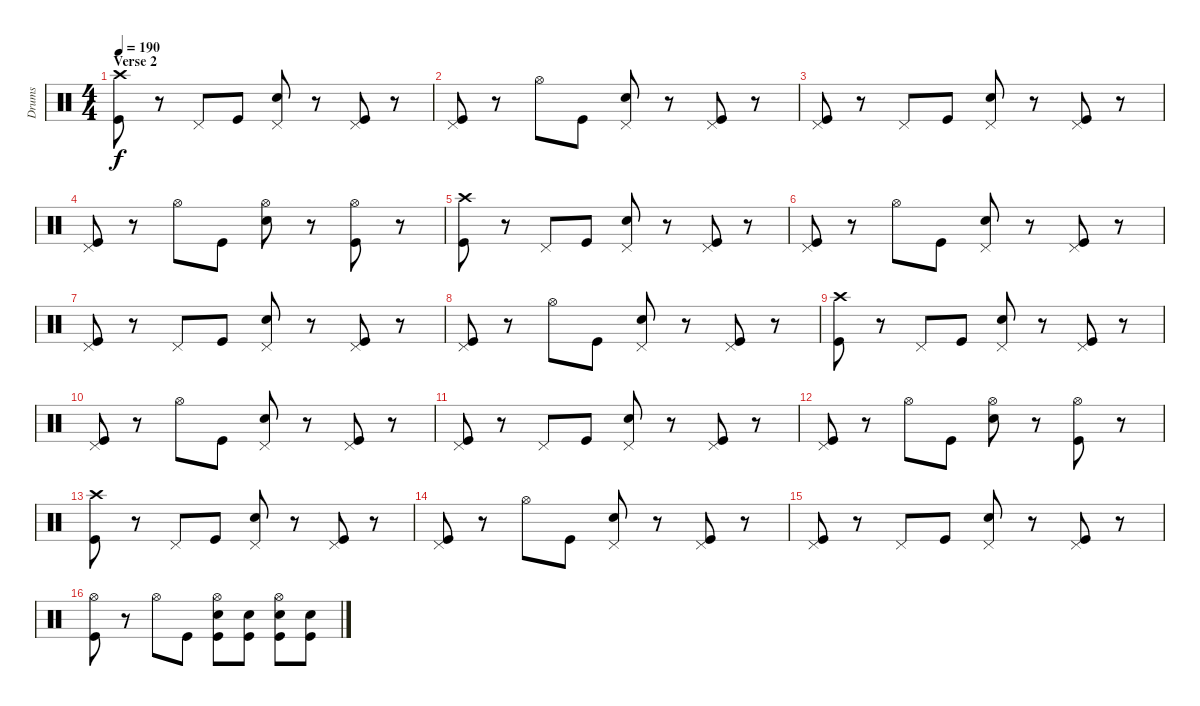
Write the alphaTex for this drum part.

\track ("Drums" "Drums") {instrument percussion}
\staff {score}
\articulation defaults
\ts (4 4)
\section ("" "Verse 2")
\tempo 190
\clef neutral
\ks c
("Crash high (hit)" "Kick (hit)").8{dy f} r.8 "Pedal Hi-Hat (hit)".8 "Kick (hit)".8 ("Pedal Hi-Hat (hit)" "Snare (hit) 2").8 r.8 ("Pedal Hi-Hat (hit)" "Kick (hit)").8 r.8 |
("Pedal Hi-Hat (hit)" "Kick (hit)").8 r.8 "Hi-Hat (open)".8 "Kick (hit)".8 ("Pedal Hi-Hat (hit)" "Snare (hit) 2").8 r.8 ("Pedal Hi-Hat (hit)" "Kick (hit)").8 r.8 |
("Pedal Hi-Hat (hit)" "Kick (hit)").8 r.8 "Pedal Hi-Hat (hit)".8 "Kick (hit)".8 ("Pedal Hi-Hat (hit)" "Snare (hit) 2").8 r.8 ("Pedal Hi-Hat (hit)" "Kick (hit)").8 r.8 |
("Pedal Hi-Hat (hit)" "Kick (hit)").8 r.8 "Hi-Hat (open)".8 "Kick (hit)".8 ("Hi-Hat (open)" "Snare (hit) 2").8 r.8 ("Hi-Hat (open)" "Kick (hit)").8 r.8 |
("Crash high (hit)" "Kick (hit)").8 r.8 "Pedal Hi-Hat (hit)".8 "Kick (hit)".8 ("Pedal Hi-Hat (hit)" "Snare (hit) 2").8 r.8 ("Pedal Hi-Hat (hit)" "Kick (hit)").8 r.8 |
("Pedal Hi-Hat (hit)" "Kick (hit)").8 r.8 "Hi-Hat (open)".8 "Kick (hit)".8 ("Pedal Hi-Hat (hit)" "Snare (hit) 2").8 r.8 ("Pedal Hi-Hat (hit)" "Kick (hit)").8 r.8 |
("Pedal Hi-Hat (hit)" "Kick (hit)").8 r.8 "Pedal Hi-Hat (hit)".8 "Kick (hit)".8 ("Pedal Hi-Hat (hit)" "Snare (hit) 2").8 r.8 ("Pedal Hi-Hat (hit)" "Kick (hit)").8 r.8 |
("Pedal Hi-Hat (hit)" "Kick (hit)").8 r.8 "Hi-Hat (open)".8 "Kick (hit)".8 ("Pedal Hi-Hat (hit)" "Snare (hit) 2").8 r.8 ("Pedal Hi-Hat (hit)" "Kick (hit)").8 r.8 |
("Crash high (hit)" "Kick (hit)").8 r.8 "Pedal Hi-Hat (hit)".8 "Kick (hit)".8 ("Pedal Hi-Hat (hit)" "Snare (hit) 2").8 r.8 ("Pedal Hi-Hat (hit)" "Kick (hit)").8 r.8 |
("Pedal Hi-Hat (hit)" "Kick (hit)").8 r.8 "Hi-Hat (open)".8 "Kick (hit)".8 ("Pedal Hi-Hat (hit)" "Snare (hit) 2").8 r.8 ("Pedal Hi-Hat (hit)" "Kick (hit)").8 r.8 |
("Pedal Hi-Hat (hit)" "Kick (hit)").8 r.8 "Pedal Hi-Hat (hit)".8 "Kick (hit)".8 ("Pedal Hi-Hat (hit)" "Snare (hit) 2").8 r.8 ("Pedal Hi-Hat (hit)" "Kick (hit)").8 r.8 |
("Pedal Hi-Hat (hit)" "Kick (hit)").8 r.8 "Hi-Hat (open)".8 "Kick (hit)".8 ("Hi-Hat (open)" "Snare (hit) 2").8 r.8 ("Hi-Hat (open)" "Kick (hit)").8 r.8 |
("Crash high (hit)" "Kick (hit)").8 r.8 "Pedal Hi-Hat (hit)".8 "Kick (hit)".8 ("Pedal Hi-Hat (hit)" "Snare (hit) 2").8 r.8 ("Pedal Hi-Hat (hit)" "Kick (hit)").8 r.8 |
("Pedal Hi-Hat (hit)" "Kick (hit)").8 r.8 "Hi-Hat (open)".8 "Kick (hit)".8 ("Pedal Hi-Hat (hit)" "Snare (hit) 2").8 r.8 ("Pedal Hi-Hat (hit)" "Kick (hit)").8 r.8 |
("Pedal Hi-Hat (hit)" "Kick (hit)").8 r.8 "Pedal Hi-Hat (hit)".8 "Kick (hit)".8 ("Pedal Hi-Hat (hit)" "Snare (hit) 2").8 r.8 ("Pedal Hi-Hat (hit)" "Kick (hit)").8 r.8 |
("Hi-Hat (open)" "Kick (hit)").8 r.8 "Hi-Hat (open)".8 "Kick (hit)".8 ("Hi-Hat (open)" "Snare (hit) 2" "Kick (hit)").8 ("Snare (hit) 2" "Kick (hit)").8 ("Hi-Hat (open)" "Snare (hit) 2" "Kick (hit)").8 ("Snare (hit) 2" "Kick (hit)").8
